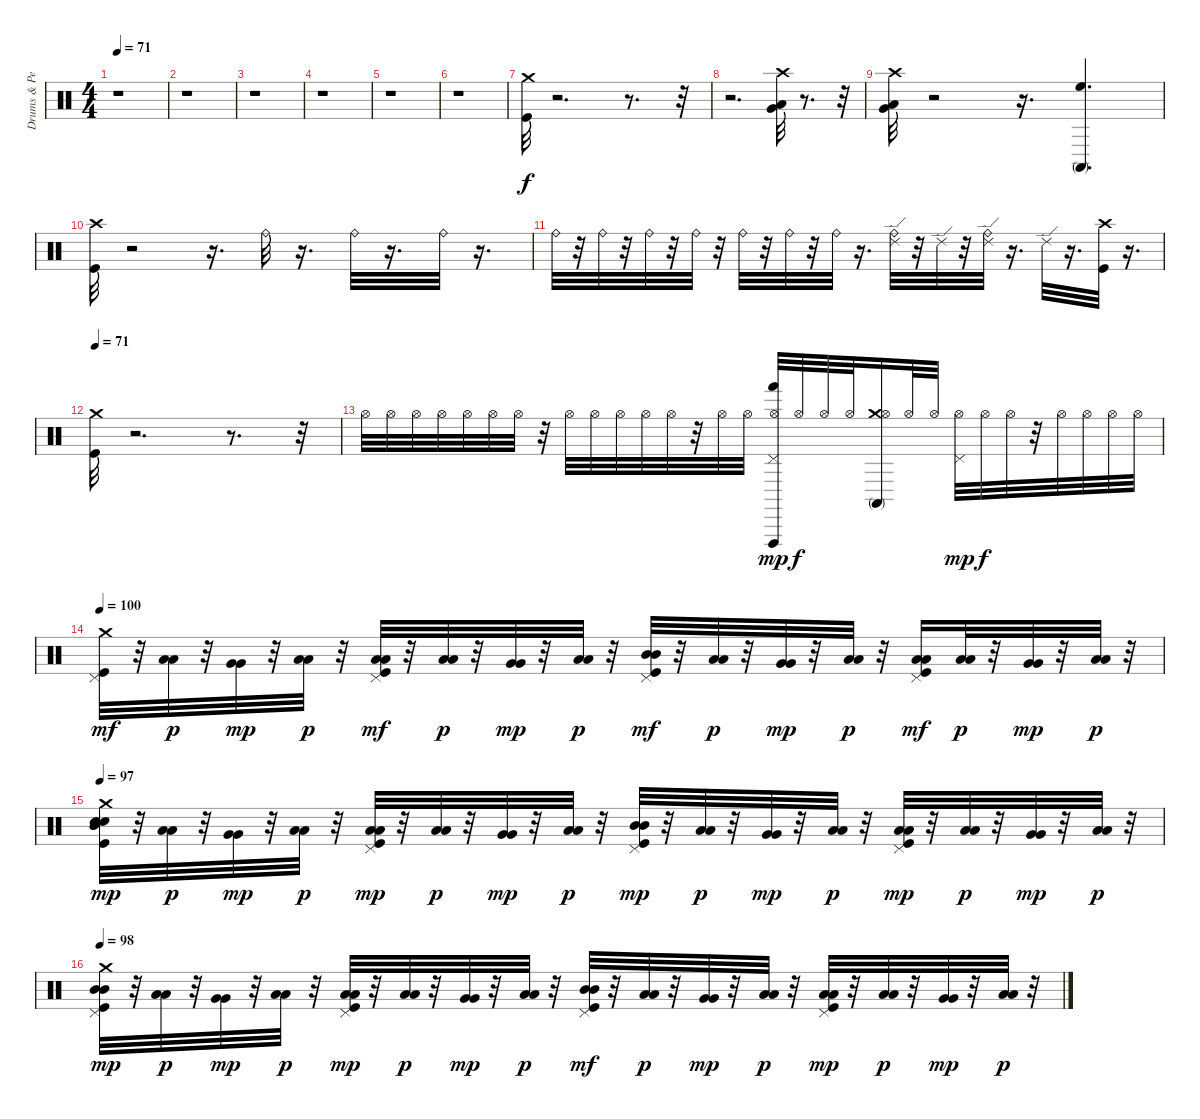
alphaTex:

\track ("Drums & Percussion" "Drums & Pe") {instrument percussion}
\staff {score}
\articulation defaults
\ts (4 4)
\tempo 71
\clef neutral
\ks c
r.1{dy f} |
r.1 |
r.1 |
r.1 |
r.1 |
r.1 |
("Crash medium (hit)" "Kick (hit)").32{volume 12 balance 8} r.2{d} r.8{d} r.32 |
r.2{d} ("Crash high (hit)" "Low Tom (hit)" "Very Low Tom (hit)").32 r.8{d} r.32 |
("Crash high (hit)" "Very Low Tom (hit)" "Low Floor Tom (hit)").32 r.2 r.16{d} ("Conga high (mute)" "High Floor Tom (hit)").4{d} |
("Kick (hit)" "Crash high (hit)").32 r.2 r.16{d} "Ride (bell)".32 r.16{d} "Ride (bell)".32 r.16{d} "Ride (bell)".32 r.16{d} |
"Ride (bell)".32 r.32 "Ride (bell)".32 r.32 "Ride (bell)".32 r.32 "Ride (bell)".32 r.32 "Ride (bell)".32 r.32 "Ride (bell)".32 r.32 "Ride (bell)".32 r.16{d} ("Ride (bell)" "Ride (edge) 2").32 r.32 "Ride (edge) 2".32 r.32 ("Ride (bell)" "Ride (edge) 2").32 r.16{d} "Ride (edge) 2".32 r.16{d} ("Kick (hit)" "Crash high (hit)").32 r.16{d} |
\tempo 71
("Kick (hit)" "Crash medium (hit)").32 r.2{d} r.8{d} r.32 |
"Hi-Hat (open)".32 "Hi-Hat (open)".32 "Hi-Hat (open)".32 "Hi-Hat (open)".32 "Hi-Hat (open)".32 "Hi-Hat (open)".32 "Hi-Hat (open)".32 r.32 "Hi-Hat (open)".32 "Hi-Hat (open)".32 "Hi-Hat (open)".32 "Hi-Hat (open)".32 "Hi-Hat (open)".32 r.32 "Hi-Hat (open)".32 "Hi-Hat (open)".32 ("Hand (hit)" "Pedal Hi-Hat (hit)" "Hi-Hat (open)" "Vibraslap (hit)").32{dy mp} "Hi-Hat (open)".32{dy f} "Hi-Hat (open)".32 "Hi-Hat (open)".32 ("Crash medium (hit)" "Conga high (mute)" "Hi-Hat (open)").16 "Hi-Hat (open)".32 "Hi-Hat (open)".32 ("Pedal Hi-Hat (hit)" "Hi-Hat (open)").32{dy mp} "Hi-Hat (open)".32{dy f} "Hi-Hat (open)".32 r.32 "Hi-Hat (open)".32 "Hi-Hat (open)".32 "Hi-Hat (open)".32 "Hi-Hat (open)".32 |
\tempo 100
("Crash medium (hit)" "Pedal Hi-Hat (hit)" "Kick (hit)").32{dy mf} r.32 ("Low Floor Tom (hit)" "Low Floor Tom (hit)").32{dy p} r.32 ("Very Low Tom (hit)" "Very Low Tom (hit)").32{dy mp} r.32 ("Low Floor Tom (hit)" "Low Floor Tom (hit)").32{dy p} r.32 ("Low Tom (hit)" "Low Tom (hit)" "Pedal Hi-Hat (hit)" "Kick (hit)").32{dy mf} r.32 ("Low Floor Tom (hit)" "Low Floor Tom (hit)").32{dy p} r.32 ("Very Low Tom (hit)" "Very Low Tom (hit)").32{dy mp} r.32 ("Low Floor Tom (hit)" "Low Floor Tom (hit)").32{dy p} r.32 ("Mid Tom (hit)" "Mid Tom (hit)" "Pedal Hi-Hat (hit)" "Kick (hit)").32{dy mf} r.32 ("Low Floor Tom (hit)" "Low Floor Tom (hit)").32{dy p} r.32 ("Very Low Tom (hit)" "Very Low Tom (hit)").32{dy mp} r.32 ("Low Floor Tom (hit)" "Low Floor Tom (hit)").32{dy p} r.32 ("Low Tom (hit)" "Low Tom (hit)" "Pedal Hi-Hat (hit)" "Kick (hit)").16{dy mf} ("Low Floor Tom (hit)" "Low Floor Tom (hit)").32{dy p} r.32 ("Very Low Tom (hit)" "Very Low Tom (hit)").32{dy mp} r.32 ("Low Floor Tom (hit)" "Low Floor Tom (hit)").32{dy p} r.32 |
\tempo 97
("Snare (hit)" "Mid Tom (hit)" "Snare (hit)" "Crash medium (hit)" "Kick (hit)" "Mid Tom (hit)").32{dy mp} r.32 ("Low Floor Tom (hit)" "Low Floor Tom (hit)").32{dy p} r.32 ("Very Low Tom (hit)" "Very Low Tom (hit)").32{dy mp} r.32 ("Low Floor Tom (hit)" "Low Floor Tom (hit)").32{dy p} r.32 ("Low Tom (hit)" "Kick (hit)" "Pedal Hi-Hat (hit)" "Low Tom (hit)").32{dy mp} r.32 ("Low Floor Tom (hit)" "Low Floor Tom (hit)").32{dy p} r.32 ("Very Low Tom (hit)" "Very Low Tom (hit)").32{dy mp} r.32 ("Low Floor Tom (hit)" "Low Floor Tom (hit)").32{dy p} r.32 ("Mid Tom (hit)" "Pedal Hi-Hat (hit)" "Kick (hit)" "Mid Tom (hit)").32{dy mp} r.32 ("Low Floor Tom (hit)" "Low Floor Tom (hit)").32{dy p} r.32 ("Very Low Tom (hit)" "Very Low Tom (hit)").32{dy mp} r.32 ("Low Floor Tom (hit)" "Low Floor Tom (hit)").32{dy p} r.32 ("Low Tom (hit)" "Kick (hit)" "Pedal Hi-Hat (hit)" "Low Tom (hit)").32{dy mp} r.32 ("Low Floor Tom (hit)" "Low Floor Tom (hit)").32{dy p} r.32 ("Very Low Tom (hit)" "Very Low Tom (hit)").32{dy mp} r.32 ("Low Floor Tom (hit)" "Low Floor Tom (hit)").32{dy p} r.32 |
\tempo 98
("Mid Tom (hit)" "Kick (hit)" "Crash medium (hit)" "Mid Tom (hit)" "Pedal Hi-Hat (hit)").32{dy mp} r.32 ("Low Floor Tom (hit)" "Low Floor Tom (hit)").32{dy p} r.32 ("Very Low Tom (hit)" "Very Low Tom (hit)").32{dy mp} r.32 ("Low Floor Tom (hit)" "Low Floor Tom (hit)").32{dy p} r.32 ("Low Tom (hit)" "Kick (hit)" "Low Tom (hit)" "Pedal Hi-Hat (hit)").32{dy mp} r.32 ("Low Floor Tom (hit)" "Low Floor Tom (hit)").32{dy p} r.32 ("Very Low Tom (hit)" "Very Low Tom (hit)").32{dy mp} r.32 ("Low Floor Tom (hit)" "Low Floor Tom (hit)").32{dy p} r.32 ("Mid Tom (hit)" "Mid Tom (hit)" "Pedal Hi-Hat (hit)" "Kick (hit)").32{dy mf} r.32 ("Low Floor Tom (hit)" "Low Floor Tom (hit)").32{dy p} r.32 ("Very Low Tom (hit)" "Very Low Tom (hit)").32{dy mp} r.32 ("Low Floor Tom (hit)" "Low Floor Tom (hit)").32{dy p} r.32 ("Low Tom (hit)" "Kick (hit)" "Low Tom (hit)" "Pedal Hi-Hat (hit)").32{dy mp} r.32 ("Low Floor Tom (hit)" "Low Floor Tom (hit)").32{dy p} r.32 ("Very Low Tom (hit)" "Very Low Tom (hit)").32{dy mp} r.32 ("Low Floor Tom (hit)" "Low Floor Tom (hit)").32{dy p} r.32
